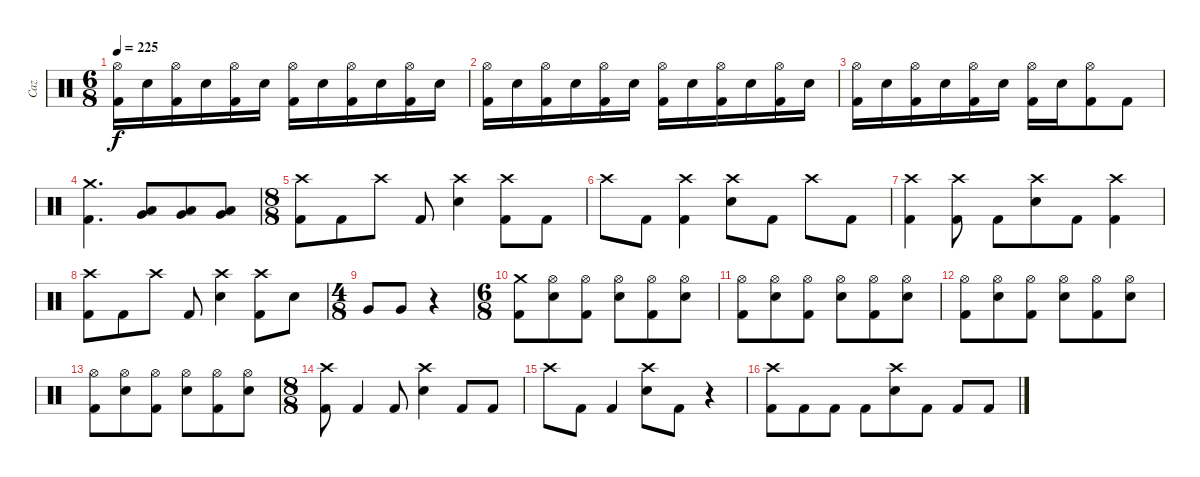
\track ("Caz" "Caz") {instrument percussion}
\staff {score}
\articulation defaults
\ts (6 8)
\tempo 225
\clef neutral
\ks c
("Hi-Hat (open)" "Kick (hit) 2").16{dy f} "Electric Snare (hit)".16 ("Hi-Hat (open)" "Kick (hit) 2").16 "Electric Snare (hit)".16 ("Hi-Hat (open)" "Kick (hit) 2").16 "Electric Snare (hit)".16 ("Hi-Hat (open)" "Kick (hit) 2").16 "Electric Snare (hit)".16 ("Hi-Hat (open)" "Kick (hit) 2").16 "Electric Snare (hit)".16 ("Hi-Hat (open)" "Kick (hit) 2").16 "Electric Snare (hit)".16 |
("Hi-Hat (open)" "Kick (hit) 2").16 "Electric Snare (hit)".16 ("Hi-Hat (open)" "Kick (hit) 2").16 "Electric Snare (hit)".16 ("Hi-Hat (open)" "Kick (hit) 2").16 "Electric Snare (hit)".16 ("Hi-Hat (open)" "Kick (hit) 2").16 "Electric Snare (hit)".16 ("Hi-Hat (open)" "Kick (hit) 2").16 "Electric Snare (hit)".16 ("Hi-Hat (open)" "Kick (hit) 2").16 "Electric Snare (hit)".16 |
("Hi-Hat (open)" "Kick (hit) 2").16 "Electric Snare (hit)".16 ("Hi-Hat (open)" "Kick (hit) 2").16 "Electric Snare (hit)".16 ("Hi-Hat (open)" "Kick (hit) 2").16 "Electric Snare (hit)".16 ("Hi-Hat (open)" "Kick (hit) 2").16 "Electric Snare (hit)".16 ("Hi-Hat (open)" "Kick (hit) 2").8 "Kick (hit) 2".8 |
("Crash medium (hit)" "Kick (hit) 2").4{d} ("Very Low Tom (hit)" "Low Floor Tom (hit)").8 ("Very Low Tom (hit)" "Low Floor Tom (hit)").8 ("Very Low Tom (hit)" "Low Floor Tom (hit)").8 |
\ts (8 8)
("Crash high (hit)" "Kick (hit) 2").8 "Kick (hit) 2".8 "Crash high (hit)".8 "Kick (hit) 2".8 ("Crash high (hit)" "Electric Snare (hit)").4 ("Crash high (hit)" "Kick (hit) 2").8 "Kick (hit) 2".8 |
"Crash high (hit)".8 "Kick (hit) 2".8 ("Crash high (hit)" "Kick (hit) 2").4 ("Crash high (hit)" "Electric Snare (hit)").8 "Kick (hit) 2".8 "Crash high (hit)".8 "Kick (hit) 2".8 |
("Crash high (hit)" "Kick (hit) 2").4 ("Crash high (hit)" "Kick (hit) 2").8 "Kick (hit) 2".8 ("Crash high (hit)" "Electric Snare (hit)").8 "Kick (hit) 2".8 ("Crash high (hit)" "Kick (hit) 2").4 |
("Crash high (hit)" "Kick (hit) 2").8 "Kick (hit) 2".8 "Crash high (hit)".8 "Kick (hit) 2".8 ("Crash high (hit)" "Electric Snare (hit)").4 ("Crash high (hit)" "Kick (hit) 2").8 "Electric Snare (hit)".8 |
\ts (4 8)
"Very Low Tom (hit)".8 "Very Low Tom (hit)".8 r.4 |
\ts (6 8)
("Crash medium (hit)" "Kick (hit) 2").8 ("Hi-Hat (open)" "Electric Snare (hit)").8 ("Hi-Hat (open)" "Kick (hit) 2").8 ("Hi-Hat (open)" "Electric Snare (hit)").8 ("Hi-Hat (open)" "Kick (hit) 2").8 ("Hi-Hat (open)" "Electric Snare (hit)").8 |
("Hi-Hat (open)" "Kick (hit) 2").8 ("Hi-Hat (open)" "Electric Snare (hit)").8 ("Hi-Hat (open)" "Kick (hit) 2").8 ("Hi-Hat (open)" "Electric Snare (hit)").8 ("Hi-Hat (open)" "Kick (hit) 2").8 ("Hi-Hat (open)" "Electric Snare (hit)").8 |
("Hi-Hat (open)" "Kick (hit) 2").8 ("Hi-Hat (open)" "Electric Snare (hit)").8 ("Hi-Hat (open)" "Kick (hit) 2").8 ("Hi-Hat (open)" "Electric Snare (hit)").8 ("Hi-Hat (open)" "Kick (hit) 2").8 ("Hi-Hat (open)" "Electric Snare (hit)").8 |
("Hi-Hat (open)" "Kick (hit) 2").8 ("Hi-Hat (open)" "Electric Snare (hit)").8 ("Hi-Hat (open)" "Kick (hit) 2").8 ("Hi-Hat (open)" "Electric Snare (hit)").8 ("Hi-Hat (open)" "Kick (hit) 2").8 ("Hi-Hat (open)" "Electric Snare (hit)").8 |
\ts (8 8)
("Crash high (hit)" "Kick (hit) 2").8 "Kick (hit) 2".4 "Kick (hit) 2".8 ("Crash high (hit)" "Electric Snare (hit)").4 "Kick (hit) 2".8 "Kick (hit) 2".8 |
"Crash high (hit)".8 "Kick (hit) 2".8 "Kick (hit) 2".4 ("Crash high (hit)" "Electric Snare (hit)").8 "Kick (hit) 2".8 r.4 |
("Crash high (hit)" "Kick (hit) 2").8 "Kick (hit) 2".8 "Kick (hit) 2".8 "Kick (hit) 2".8 ("Crash high (hit)" "Electric Snare (hit)").8 "Kick (hit) 2".8 "Kick (hit) 2".8 "Kick (hit) 2".8
